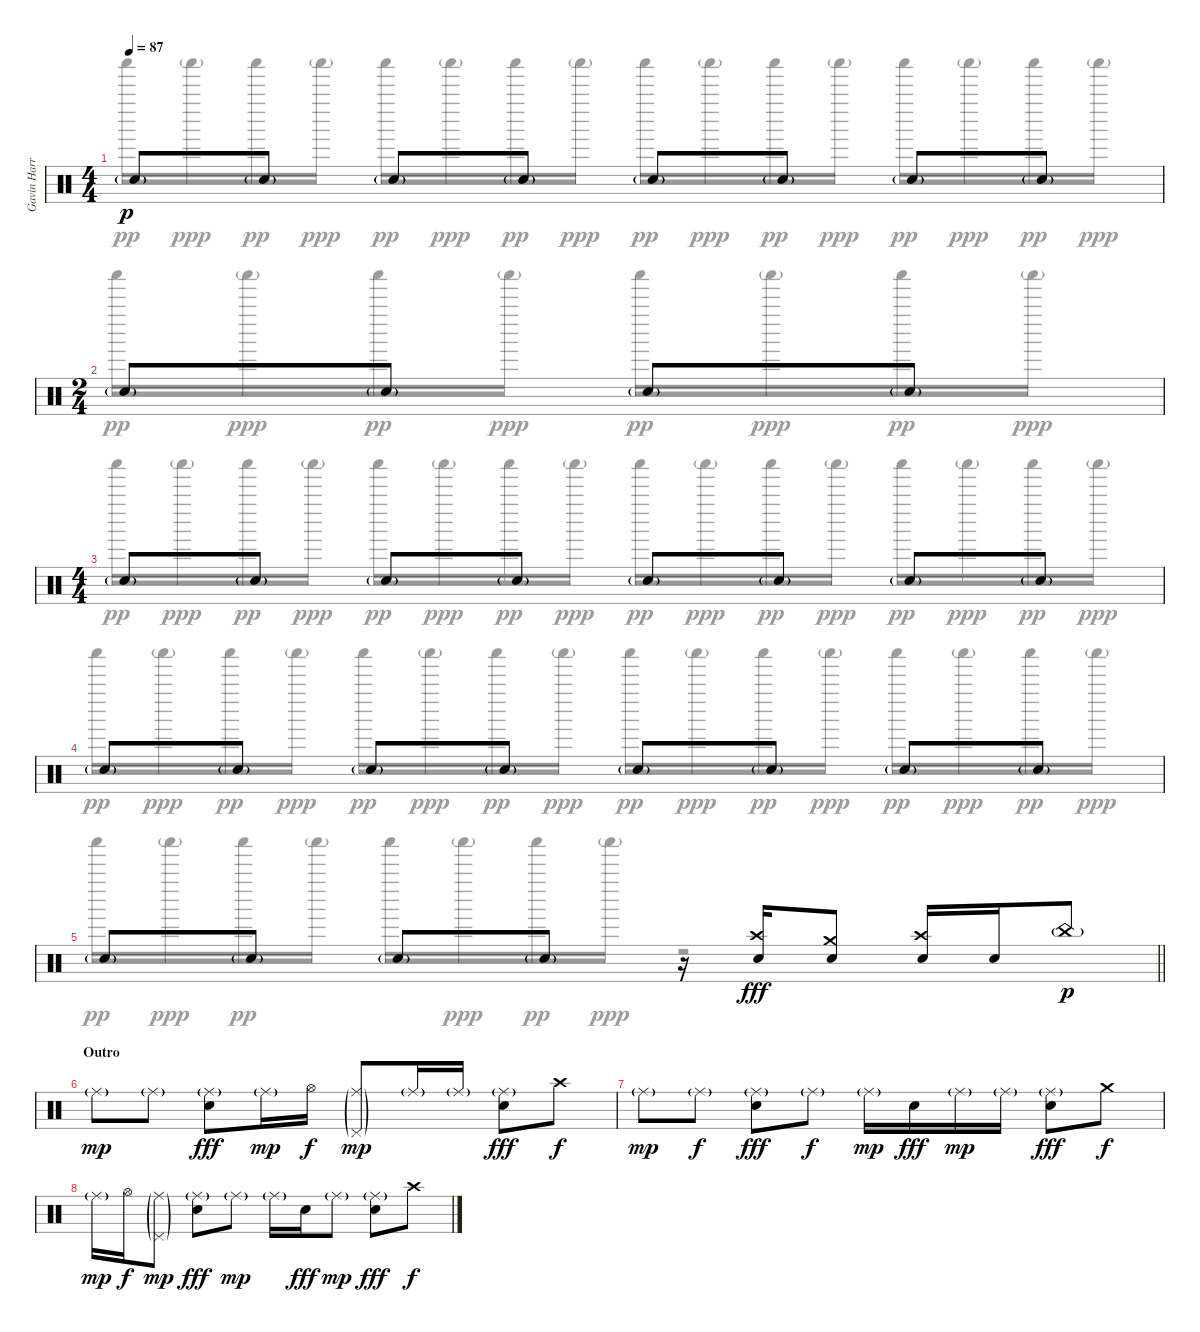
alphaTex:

\track ("Gavin Harrison Drums" "Gavin Harr") {instrument percussion}
\staff {score}
\articulation defaults
\voice
\ts (4 4)
\tempo 87
\clef neutral
\ks aminor "Hand Clap (hit)"{g}.8{dy p} "Hand Clap (hit)"{g}.8 "Hand Clap (hit)"{g}.8 "Hand Clap (hit)"{g}.8 "Hand Clap (hit)"{g}.8 "Hand Clap (hit)"{g}.8 "Hand Clap (hit)"{g}.8 "Hand Clap (hit)"{g}.8
|
\ts (2 4)
"Hand Clap (hit)"{g}.8{volume 7} "Hand Clap (hit)"{g}.8 "Hand Clap (hit)"{g}.8 "Hand Clap (hit)"{g}.8 |
\ts (4 4)
"Hand Clap (hit)"{g}.8 "Hand Clap (hit)"{g}.8 "Hand Clap (hit)"{g}.8 "Hand Clap (hit)"{g}.8 "Hand Clap (hit)"{g}.8 "Hand Clap (hit)"{g}.8 "Hand Clap (hit)"{g}.8 "Hand Clap (hit)"{g}.8 |
"Hand Clap (hit)"{g}.8 "Hand Clap (hit)"{g}.8 "Hand Clap (hit)"{g}.8 "Hand Clap (hit)"{g}.8 "Hand Clap (hit)"{g}.8 "Hand Clap (hit)"{g}.8 "Hand Clap (hit)"{g}.8 "Hand Clap (hit)"{g}.8 |
\barLineRight lightlight "Hand Clap (hit)"{g}.8 "Hand Clap (hit)"{g}.8 "Hand Clap (hit)"{g}.8 "Hand Clap (hit)"{g}.8
r.16{volume 16} ("Crash high (hit)" "Electric Snare (hit)").16{dy fff} ("Crash medium (hit)" "Electric Snare (hit)").8 ("Crash high (hit)" "Electric Snare (hit)").16 "Electric Snare (hit)".16 "China (hit)"{g}.8{dy p} |
\section ("" "Outro")
"Ride (middle)"{g}.8{dy mp} "Ride (middle)"{g}.8 ("Ride (middle)"{g} "Electric Snare (hit)").8{dy fff} "Ride (middle)"{g}.16{dy mp} "Hi-Hat (open)".16{dy f} ("Ride (middle)"{g} "Pedal Hi-Hat (hit)"{g}).8{dy mp} "Ride (middle)"{g}.16 "Ride (middle)"{g}.16 ("Ride (middle)"{g} "Electric Snare (hit)").8{dy fff} "Crash high (hit)".8{dy f} |
"Ride (middle)"{g}.8{dy mp} "Ride (middle)"{g}.8{dy f} ("Ride (middle)"{g} "Electric Snare (hit)").8{dy fff} "Ride (middle)"{g}.8{dy f} "Ride (middle)"{g}.16{dy mp} "Electric Snare (hit)".16{dy fff} "Ride (middle)"{g}.16{dy mp} "Ride (middle)"{g}.16 ("Ride (middle)"{g} "Electric Snare (hit)").8{dy fff} "Crash medium (hit)".8{dy f} |
"Ride (middle)"{g}.16{dy mp} "Hi-Hat (open)".16{dy f} ("Ride (middle)"{g} "Pedal Hi-Hat (hit)"{g}).8{dy mp} ("Ride (middle)"{g} "Electric Snare (hit)").8{dy fff} "Ride (middle)"{g}.8{dy mp} "Ride (middle)"{g}.16 "Electric Snare (hit)".16{dy fff} "Ride (middle)"{g}.8{dy mp} ("Ride (middle)"{g} "Electric Snare (hit)").8{dy fff} "Crash high (hit)".8{dy f}
\voice
\clef neutral
\ottava regular
\simile none
\ks aminor "Shaker (hit)".16{dy pp} "Shaker (hit)"{g}.16{dy ppp} "Shaker (hit)".16{dy pp} "Shaker (hit)"{g}.16{dy ppp} "Shaker (hit)".16{dy pp} "Shaker (hit)"{g}.16{dy ppp} "Shaker (hit)".16{dy pp} "Shaker (hit)"{g}.16{dy ppp} "Shaker (hit)".16{dy pp} "Shaker (hit)"{g}.16{dy ppp} "Shaker (hit)".16{dy pp} "Shaker (hit)"{g}.16{dy ppp} "Shaker (hit)".16{dy pp} "Shaker (hit)"{g}.16{dy ppp} "Shaker (hit)".16{dy pp} "Shaker (hit)"{g}.16{dy ppp}
|
"Shaker (hit)".16{dy pp} "Shaker (hit)"{g}.16{dy ppp} "Shaker (hit)".16{dy pp} "Shaker (hit)"{g}.16{dy ppp} "Shaker (hit)".16{dy pp} "Shaker (hit)"{g}.16{dy ppp} "Shaker (hit)".16{dy pp} "Shaker (hit)"{g}.16{dy ppp} |
"Shaker (hit)".16{dy pp} "Shaker (hit)"{g}.16{dy ppp} "Shaker (hit)".16{dy pp} "Shaker (hit)"{g}.16{dy ppp} "Shaker (hit)".16{dy pp} "Shaker (hit)"{g}.16{dy ppp} "Shaker (hit)".16{dy pp} "Shaker (hit)"{g}.16{dy ppp} "Shaker (hit)".16{dy pp} "Shaker (hit)"{g}.16{dy ppp} "Shaker (hit)".16{dy pp} "Shaker (hit)"{g}.16{dy ppp} "Shaker (hit)".16{dy pp} "Shaker (hit)"{g}.16{dy ppp} "Shaker (hit)".16{dy pp} "Shaker (hit)"{g}.16{dy ppp} |
"Shaker (hit)".16{dy pp} "Shaker (hit)"{g}.16{dy ppp} "Shaker (hit)".16{dy pp} "Shaker (hit)"{g}.16{dy ppp} "Shaker (hit)".16{dy pp} "Shaker (hit)"{g}.16{dy ppp} "Shaker (hit)".16{dy pp} "Shaker (hit)"{g}.16{dy ppp} "Shaker (hit)".16{dy pp} "Shaker (hit)"{g}.16{dy ppp} "Shaker (hit)".16{dy pp} "Shaker (hit)"{g}.16{dy ppp} "Shaker (hit)".16{dy pp} "Shaker (hit)"{g}.16{dy ppp} "Shaker (hit)".16{dy pp} "Shaker (hit)"{g}.16{dy ppp} |
\barLineRight lightlight "Shaker (hit)".16{dy pp} "Shaker (hit)"{g}.16{dy ppp} "Shaker (hit)".16{dy pp} "Shaker (hit)"{g}.16 "Shaker (hit)".16 "Shaker (hit)"{g}.16{dy ppp} "Shaker (hit)".16{dy pp} "Shaker (hit)"{g}.16{dy ppp}
r.2 |
|
|
